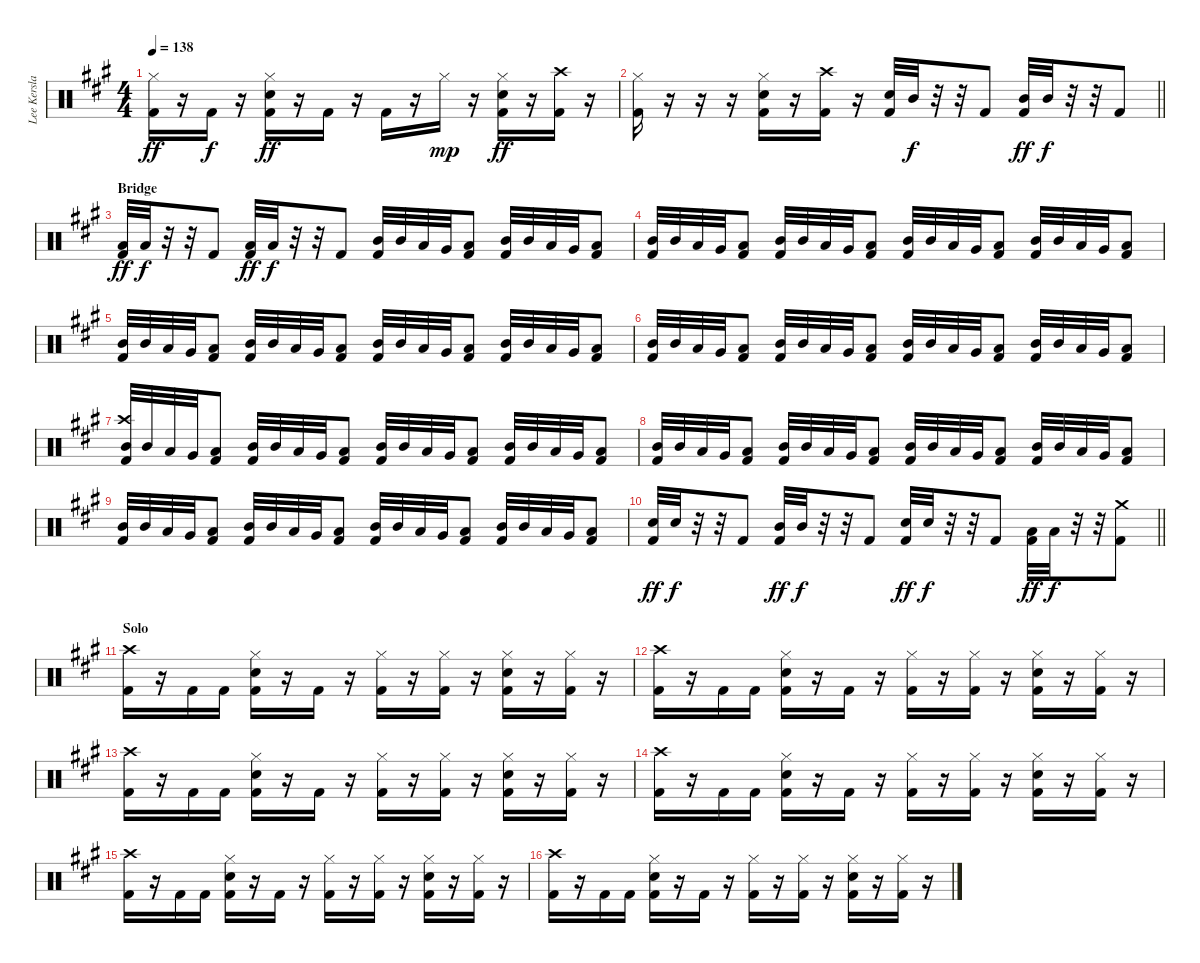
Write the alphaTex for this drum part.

\track ("Lee Kerslake" "Lee Kersla") {instrument percussion}
\staff {score}
\articulation defaults
\ts (4 4)
\tempo 138
\clef neutral
\ks a
("Hi-Hat (closed)" "Kick (hit) 2").16{dy ff} r.16 "Kick (hit) 2".16{dy f} r.16 ("Hi-Hat (closed)" "Snare (hit) 2" "Kick (hit) 2").16{dy ff} r.16 "Kick (hit) 2".16 r.16 "Kick (hit) 2".16 r.16 "Hi-Hat (closed)".16{dy mp} r.16 ("Hi-Hat (closed)" "Snare (hit) 2" "Kick (hit) 2").16{dy ff} r.16 ("Crash high (hit)" "Kick (hit) 2").16 r.16 |
\barLineRight lightlight
("Hi-Hat (closed)" "Kick (hit) 2").16 r.16 r.16 r.16 ("Hi-Hat (closed)" "Snare (hit) 2" "Kick (hit) 2").16 r.16 ("Crash high (hit)" "Kick (hit) 2").16 r.16 ("Snare (hit) 2" "Kick (hit) 2").32 "Mid Tom (hit)".32{dy f} r.32 r.32 "Kick (hit) 2".8 ("Mid Tom (hit)" "Kick (hit) 2").32{dy ff} "Mid Tom (hit)".32{dy f} r.32 r.32 "Kick (hit) 2".8 |
\section ("" "Bridge")
("Low Tom (hit)" "Kick (hit) 2").32{dy ff} "Low Tom (hit)".32{dy f} r.32 r.32 "Kick (hit) 2".8 ("Low Tom (hit)" "Kick (hit) 2").32{dy ff} "Low Tom (hit)".32{dy f} r.32 r.32 "Kick (hit) 2".8 ("Mid Tom (hit)" "Kick (hit) 2").32 "Mid Tom (hit)".32 "Low Tom (hit)".32 "Very Low Tom (hit)".32 ("Low Floor Tom (hit)" "Kick (hit) 2").8 ("Mid Tom (hit)" "Kick (hit) 2").32 "Mid Tom (hit)".32 "Low Tom (hit)".32 "Very Low Tom (hit)".32 ("Low Floor Tom (hit)" "Kick (hit) 2").8 |
("Mid Tom (hit)" "Kick (hit) 2").32 "Mid Tom (hit)".32 "Low Tom (hit)".32 "Very Low Tom (hit)".32 ("Low Floor Tom (hit)" "Kick (hit) 2").8 ("Mid Tom (hit)" "Kick (hit) 2").32 "Mid Tom (hit)".32 "Low Tom (hit)".32 "Very Low Tom (hit)".32 ("Low Floor Tom (hit)" "Kick (hit) 2").8 ("Mid Tom (hit)" "Kick (hit) 2").32 "Mid Tom (hit)".32 "Low Tom (hit)".32 "Very Low Tom (hit)".32 ("Low Floor Tom (hit)" "Kick (hit) 2").8 ("Mid Tom (hit)" "Kick (hit) 2").32 "Mid Tom (hit)".32 "Low Tom (hit)".32 "Very Low Tom (hit)".32 ("Low Floor Tom (hit)" "Kick (hit) 2").8 |
("Mid Tom (hit)" "Kick (hit) 2").32 "Mid Tom (hit)".32 "Low Tom (hit)".32 "Very Low Tom (hit)".32 ("Low Floor Tom (hit)" "Kick (hit) 2").8 ("Mid Tom (hit)" "Kick (hit) 2").32 "Mid Tom (hit)".32 "Low Tom (hit)".32 "Very Low Tom (hit)".32 ("Low Floor Tom (hit)" "Kick (hit) 2").8 ("Mid Tom (hit)" "Kick (hit) 2").32 "Mid Tom (hit)".32 "Low Tom (hit)".32 "Very Low Tom (hit)".32 ("Low Floor Tom (hit)" "Kick (hit) 2").8 ("Mid Tom (hit)" "Kick (hit) 2").32 "Mid Tom (hit)".32 "Low Tom (hit)".32 "Very Low Tom (hit)".32 ("Low Floor Tom (hit)" "Kick (hit) 2").8 |
("Mid Tom (hit)" "Kick (hit) 2").32 "Mid Tom (hit)".32 "Low Tom (hit)".32 "Very Low Tom (hit)".32 ("Low Floor Tom (hit)" "Kick (hit) 2").8 ("Mid Tom (hit)" "Kick (hit) 2").32 "Mid Tom (hit)".32 "Low Tom (hit)".32 "Very Low Tom (hit)".32 ("Low Floor Tom (hit)" "Kick (hit) 2").8 ("Mid Tom (hit)" "Kick (hit) 2").32 "Mid Tom (hit)".32 "Low Tom (hit)".32 "Very Low Tom (hit)".32 ("Low Floor Tom (hit)" "Kick (hit) 2").8 ("Mid Tom (hit)" "Kick (hit) 2").32 "Mid Tom (hit)".32 "Low Tom (hit)".32 "Very Low Tom (hit)".32 ("Low Floor Tom (hit)" "Kick (hit) 2").8 |
("Crash high (hit)" "Mid Tom (hit)" "Kick (hit) 2").32 "Mid Tom (hit)".32 "Low Tom (hit)".32 "Very Low Tom (hit)".32 ("Low Floor Tom (hit)" "Kick (hit) 2").8 ("Mid Tom (hit)" "Kick (hit) 2").32 "Mid Tom (hit)".32 "Low Tom (hit)".32 "Very Low Tom (hit)".32 ("Low Floor Tom (hit)" "Kick (hit) 2").8 ("Mid Tom (hit)" "Kick (hit) 2").32 "Mid Tom (hit)".32 "Low Tom (hit)".32 "Very Low Tom (hit)".32 ("Low Floor Tom (hit)" "Kick (hit) 2").8 ("Mid Tom (hit)" "Kick (hit) 2").32 "Mid Tom (hit)".32 "Low Tom (hit)".32 "Very Low Tom (hit)".32 ("Low Floor Tom (hit)" "Kick (hit) 2").8 |
("Mid Tom (hit)" "Kick (hit) 2").32 "Mid Tom (hit)".32 "Low Tom (hit)".32 "Very Low Tom (hit)".32 ("Low Floor Tom (hit)" "Kick (hit) 2").8 ("Mid Tom (hit)" "Kick (hit) 2").32 "Mid Tom (hit)".32 "Low Tom (hit)".32 "Very Low Tom (hit)".32 ("Low Floor Tom (hit)" "Kick (hit) 2").8 ("Mid Tom (hit)" "Kick (hit) 2").32 "Mid Tom (hit)".32 "Low Tom (hit)".32 "Very Low Tom (hit)".32 ("Low Floor Tom (hit)" "Kick (hit) 2").8 ("Mid Tom (hit)" "Kick (hit) 2").32 "Mid Tom (hit)".32 "Low Tom (hit)".32 "Very Low Tom (hit)".32 ("Low Floor Tom (hit)" "Kick (hit) 2").8 |
("Mid Tom (hit)" "Kick (hit) 2").32 "Mid Tom (hit)".32 "Low Tom (hit)".32 "Very Low Tom (hit)".32 ("Low Floor Tom (hit)" "Kick (hit) 2").8 ("Mid Tom (hit)" "Kick (hit) 2").32 "Mid Tom (hit)".32 "Low Tom (hit)".32 "Very Low Tom (hit)".32 ("Low Floor Tom (hit)" "Kick (hit) 2").8 ("Mid Tom (hit)" "Kick (hit) 2").32 "Mid Tom (hit)".32 "Low Tom (hit)".32 "Very Low Tom (hit)".32 ("Low Floor Tom (hit)" "Kick (hit) 2").8 ("Mid Tom (hit)" "Kick (hit) 2").32 "Mid Tom (hit)".32 "Low Tom (hit)".32 "Very Low Tom (hit)".32 ("Low Floor Tom (hit)" "Kick (hit) 2").8 |
\barLineRight lightlight
("Snare (hit) 2" "Kick (hit) 2").32{dy ff} "Snare (hit) 2".32{dy f} r.32 r.32 "Kick (hit) 2".8 ("Mid Tom (hit)" "Kick (hit) 2").32{dy ff} "Mid Tom (hit)".32{dy f} r.32 r.32 "Kick (hit) 2".8 ("Snare (hit) 2" "Kick (hit) 2").32{dy ff} "Snare (hit) 2".32{dy f} r.32 r.32 "Kick (hit) 2".8 ("Low Tom (hit)" "Kick (hit) 2").32{dy ff} "Low Tom (hit)".32{dy f} r.32 r.32 ("Crash medium (hit)" "Kick (hit) 2").8 |
\section ("" "Solo")
("Crash high (hit)" "Kick (hit) 2").16 r.16 "Kick (hit) 2".16 "Kick (hit) 2".16 ("Hi-Hat (closed)" "Snare (hit) 2" "Kick (hit) 2").16 r.16 "Kick (hit) 2".16 r.16 ("Hi-Hat (closed)" "Kick (hit) 2").16 r.16 ("Hi-Hat (closed)" "Kick (hit) 2").16 r.16 ("Hi-Hat (closed)" "Snare (hit) 2" "Kick (hit) 2").16 r.16 ("Hi-Hat (closed)" "Kick (hit) 2").16 r.16 |
("Crash high (hit)" "Kick (hit) 2").16 r.16 "Kick (hit) 2".16 "Kick (hit) 2".16 ("Hi-Hat (closed)" "Snare (hit) 2" "Kick (hit) 2").16 r.16 "Kick (hit) 2".16 r.16 ("Hi-Hat (closed)" "Kick (hit) 2").16 r.16 ("Hi-Hat (closed)" "Kick (hit) 2").16 r.16 ("Hi-Hat (closed)" "Snare (hit) 2" "Kick (hit) 2").16 r.16 ("Hi-Hat (closed)" "Kick (hit) 2").16 r.16 |
("Crash high (hit)" "Kick (hit) 2").16 r.16 "Kick (hit) 2".16 "Kick (hit) 2".16 ("Hi-Hat (closed)" "Snare (hit) 2" "Kick (hit) 2").16 r.16 "Kick (hit) 2".16 r.16 ("Hi-Hat (closed)" "Kick (hit) 2").16 r.16 ("Hi-Hat (closed)" "Kick (hit) 2").16 r.16 ("Hi-Hat (closed)" "Snare (hit) 2" "Kick (hit) 2").16 r.16 ("Hi-Hat (closed)" "Kick (hit) 2").16 r.16 |
("Crash high (hit)" "Kick (hit) 2").16 r.16 "Kick (hit) 2".16 "Kick (hit) 2".16 ("Hi-Hat (closed)" "Snare (hit) 2" "Kick (hit) 2").16 r.16 "Kick (hit) 2".16 r.16 ("Hi-Hat (closed)" "Kick (hit) 2").16 r.16 ("Hi-Hat (closed)" "Kick (hit) 2").16 r.16 ("Hi-Hat (closed)" "Snare (hit) 2" "Kick (hit) 2").16 r.16 ("Hi-Hat (closed)" "Kick (hit) 2").16 r.16 |
("Crash high (hit)" "Kick (hit) 2").16 r.16 "Kick (hit) 2".16 "Kick (hit) 2".16 ("Hi-Hat (closed)" "Snare (hit) 2" "Kick (hit) 2").16 r.16 "Kick (hit) 2".16 r.16 ("Hi-Hat (closed)" "Kick (hit) 2").16 r.16 ("Hi-Hat (closed)" "Kick (hit) 2").16 r.16 ("Hi-Hat (closed)" "Snare (hit) 2" "Kick (hit) 2").16 r.16 ("Hi-Hat (closed)" "Kick (hit) 2").16 r.16 |
("Crash high (hit)" "Kick (hit) 2").16 r.16 "Kick (hit) 2".16 "Kick (hit) 2".16 ("Hi-Hat (closed)" "Snare (hit) 2" "Kick (hit) 2").16 r.16 "Kick (hit) 2".16 r.16 ("Hi-Hat (closed)" "Kick (hit) 2").16 r.16 ("Hi-Hat (closed)" "Kick (hit) 2").16 r.16 ("Hi-Hat (closed)" "Snare (hit) 2" "Kick (hit) 2").16 r.16 ("Hi-Hat (closed)" "Kick (hit) 2").16 r.16
